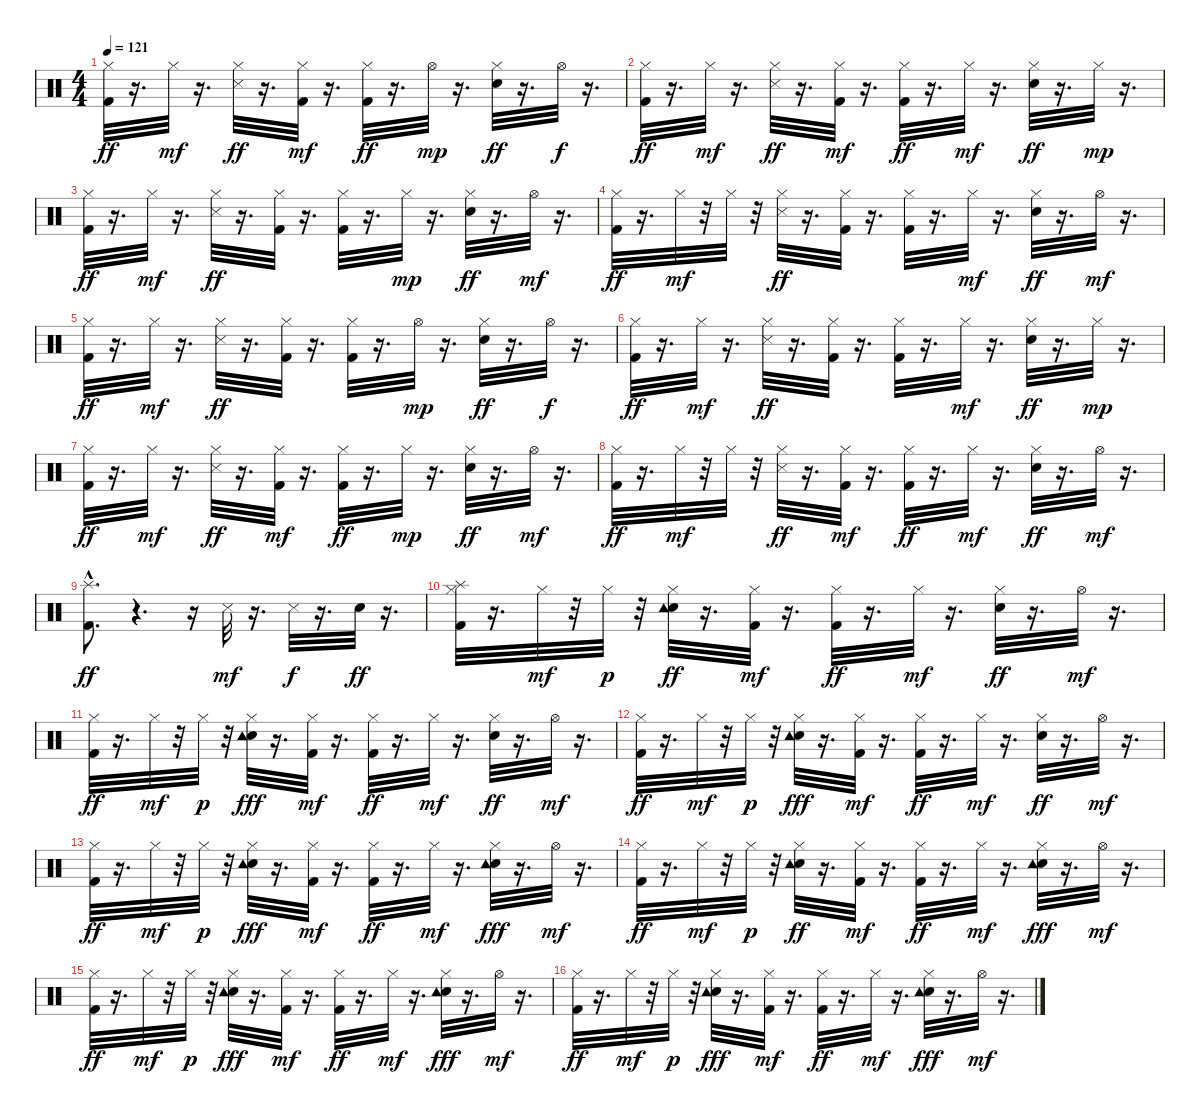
\track "" {instrument percussion}
\staff {score}
\articulation defaults
\ts (4 4)
\tempo 121
\clef neutral
\ks c
("Kick (hit) 2" "Hi-Hat (closed)").32{dy ff} r.16{d} "Hi-Hat (closed)".32{dy mf} r.16{d} ("Snare (side stick) 3" "Hi-Hat (closed)").32{dy ff} r.16{d} ("Kick (hit) 2" "Hi-Hat (closed)").32{dy mf} r.16{d} ("Kick (hit) 2" "Hi-Hat (closed)").32{dy ff} r.16{d} "Hi-Hat (open)".32{dy mp} r.16{d} ("Electric Snare (hit)" "Hi-Hat (closed)").32{dy ff} r.16{d} "Hi-Hat (open)".32{dy f} r.16{d} |
("Kick (hit) 2" "Hi-Hat (closed)").32{dy ff} r.16{d} "Hi-Hat (closed)".32{dy mf} r.16{d} ("Snare (side stick) 3" "Hi-Hat (closed)").32{dy ff} r.16{d} ("Kick (hit) 2" "Hi-Hat (closed)").32{dy mf} r.16{d} ("Kick (hit) 2" "Hi-Hat (closed)").32{dy ff} r.16{d} "Hi-Hat (closed)".32{dy mf} r.16{d} ("Electric Snare (hit)" "Hi-Hat (closed)").32{dy ff} r.16{d} "Hi-Hat (closed)".32{dy mp} r.16{d} |
("Kick (hit) 2" "Hi-Hat (closed)").32{dy ff} r.16{d} "Hi-Hat (closed)".32{dy mf} r.16{d} ("Snare (side stick) 3" "Hi-Hat (closed)").32{dy ff} r.16{d} ("Hi-Hat (closed)" "Kick (hit) 2").32 r.16{d} ("Kick (hit) 2" "Hi-Hat (closed)").32 r.16{d} "Hi-Hat (closed)".32{dy mp} r.16{d} ("Electric Snare (hit)" "Hi-Hat (closed)").32{dy ff} r.16{d} "Hi-Hat (open)".32{dy mf} r.16{d} |
("Kick (hit) 2" "Hi-Hat (closed)").32{dy ff} r.16{d} "Hi-Hat (closed)".32{dy mf} r.32 "Hi-Hat (closed)".32 r.32 ("Snare (side stick) 3" "Hi-Hat (closed)").32{dy ff} r.16{d} ("Hi-Hat (closed)" "Kick (hit) 2").32 r.16{d} ("Kick (hit) 2" "Hi-Hat (closed)").32 r.16{d} "Hi-Hat (closed)".32{dy mf} r.16{d} ("Electric Snare (hit)" "Hi-Hat (closed)").32{dy ff} r.16{d} "Hi-Hat (open)".32{dy mf} r.16{d} |
("Kick (hit) 2" "Hi-Hat (closed)").32{dy ff} r.16{d} "Hi-Hat (closed)".32{dy mf} r.16{d} ("Snare (side stick) 3" "Hi-Hat (closed)").32{dy ff} r.16{d} ("Hi-Hat (closed)" "Kick (hit) 2").32 r.16{d} ("Hi-Hat (closed)" "Kick (hit) 2").32 r.16{d} "Hi-Hat (open)".32{dy mp} r.16{d} ("Electric Snare (hit)" "Hi-Hat (closed)").32{dy ff} r.16{d} "Hi-Hat (open)".32{dy f} r.16{d} |
("Kick (hit) 2" "Hi-Hat (closed)").32{dy ff} r.16{d} "Hi-Hat (closed)".32{dy mf} r.16{d} ("Snare (side stick) 3" "Hi-Hat (closed)").32{dy ff} r.16{d} ("Hi-Hat (closed)" "Kick (hit) 2").32 r.16{d} ("Hi-Hat (closed)" "Kick (hit) 2").32 r.16{d} "Hi-Hat (closed)".32{dy mf} r.16{d} ("Electric Snare (hit)" "Hi-Hat (closed)").32{dy ff} r.16{d} "Hi-Hat (closed)".32{dy mp} r.16{d} |
("Kick (hit) 2" "Hi-Hat (closed)").32{dy ff} r.16{d} "Hi-Hat (closed)".32{dy mf} r.16{d} ("Snare (side stick) 3" "Hi-Hat (closed)").32{dy ff} r.16{d} ("Kick (hit) 2" "Hi-Hat (closed)").32{dy mf} r.16{d} ("Hi-Hat (closed)" "Kick (hit) 2").32{dy ff} r.16{d} "Hi-Hat (closed)".32{dy mp} r.16{d} ("Electric Snare (hit)" "Hi-Hat (closed)").32{dy ff} r.16{d} "Hi-Hat (open)".32{dy mf} r.16{d} |
("Kick (hit) 2" "Hi-Hat (closed)").32{dy ff} r.16{d} "Hi-Hat (closed)".32{dy mf} r.32 "Hi-Hat (closed)".32 r.32 ("Snare (side stick) 3" "Hi-Hat (closed)").32{dy ff} r.16{d} ("Kick (hit) 2" "Hi-Hat (closed)").32{dy mf} r.16{d} ("Hi-Hat (closed)" "Kick (hit) 2").32{dy ff} r.16{d} "Hi-Hat (closed)".32{dy mf} r.16{d} ("Electric Snare (hit)" "Hi-Hat (closed)").32{dy ff} r.16{d} "Hi-Hat (open)".32{dy mf} r.16{d} |
("Kick (hit) 2"{hac} "Splash (hit)").8{d dy ff} r.4{d} r.16 "Snare (side stick) 3".32{dy mf} r.16{d} "Snare (side stick) 3".32{dy f} r.16{d} "Electric Snare (hit)".32{dy ff} r.16{d} |
("Hi-Hat (closed)" "Kick (hit) 2" "Splash (hit)").32 r.16{d} "Hi-Hat (closed)".32{dy mf} r.32 "Hi-Hat (closed)".32{dy p} r.32 ("Electric Snare (hit)" "Hi-Hat (closed)" "Tambourine (hit)").32{dy ff} r.16{d} ("Kick (hit) 2" "Hi-Hat (closed)").32{dy mf} r.16{d} ("Kick (hit) 2" "Hi-Hat (closed)").32{dy ff} r.16{d} "Hi-Hat (closed)".32{dy mf} r.16{d} ("Electric Snare (hit)" "Hi-Hat (closed)").32{dy ff} r.16{d} "Hi-Hat (open)".32{dy mf} r.16{d} |
("Kick (hit) 2" "Hi-Hat (closed)").32{dy ff} r.16{d} "Hi-Hat (closed)".32{dy mf} r.32 "Hi-Hat (closed)".32{dy p} r.32 ("Electric Snare (hit)" "Hi-Hat (closed)" "Tambourine (hit)").32{dy fff} r.16{d} ("Kick (hit) 2" "Hi-Hat (closed)").32{dy mf} r.16{d} ("Kick (hit) 2" "Hi-Hat (closed)").32{dy ff} r.16{d} "Hi-Hat (closed)".32{dy mf} r.16{d} ("Electric Snare (hit)" "Hi-Hat (closed)").32{dy ff} r.16{d} "Hi-Hat (open)".32{dy mf} r.16{d} |
("Kick (hit) 2" "Hi-Hat (closed)").32{dy ff} r.16{d} "Hi-Hat (closed)".32{dy mf} r.32 "Hi-Hat (closed)".32{dy p} r.32 ("Electric Snare (hit)" "Hi-Hat (closed)" "Tambourine (hit)").32{dy fff} r.16{d} ("Kick (hit) 2" "Hi-Hat (closed)").32{dy mf} r.16{d} ("Kick (hit) 2" "Hi-Hat (closed)").32{dy ff} r.16{d} "Hi-Hat (closed)".32{dy mf} r.16{d} ("Electric Snare (hit)" "Hi-Hat (closed)").32{dy ff} r.16{d} "Hi-Hat (open)".32{dy mf} r.16{d} |
("Kick (hit) 2" "Hi-Hat (closed)").32{dy ff} r.16{d} "Hi-Hat (closed)".32{dy mf} r.32 "Hi-Hat (closed)".32{dy p} r.32 ("Electric Snare (hit)" "Hi-Hat (closed)" "Tambourine (hit)").32{dy fff} r.16{d} ("Kick (hit) 2" "Hi-Hat (closed)").32{dy mf} r.16{d} ("Kick (hit) 2" "Hi-Hat (closed)").32{dy ff} r.16{d} "Hi-Hat (closed)".32{dy mf} r.16{d} ("Electric Snare (hit)" "Hi-Hat (closed)" "Tambourine (hit)").32{dy fff} r.16{d} "Hi-Hat (open)".32{dy mf} r.16{d} |
("Kick (hit) 2" "Hi-Hat (closed)").32{dy ff} r.16{d} "Hi-Hat (closed)".32{dy mf} r.32 "Hi-Hat (closed)".32{dy p} r.32 ("Electric Snare (hit)" "Hi-Hat (closed)" "Tambourine (hit)").32{dy ff} r.16{d} ("Kick (hit) 2" "Hi-Hat (closed)").32{dy mf} r.16{d} ("Kick (hit) 2" "Hi-Hat (closed)").32{dy ff} r.16{d} "Hi-Hat (closed)".32{dy mf} r.16{d} ("Electric Snare (hit)" "Hi-Hat (closed)" "Tambourine (hit)").32{dy fff} r.16{d} "Hi-Hat (open)".32{dy mf} r.16{d} |
("Kick (hit) 2" "Hi-Hat (closed)").32{dy ff} r.16{d} "Hi-Hat (closed)".32{dy mf} r.32 "Hi-Hat (closed)".32{dy p} r.32 ("Electric Snare (hit)" "Hi-Hat (closed)" "Tambourine (hit)").32{dy fff} r.16{d} ("Kick (hit) 2" "Hi-Hat (closed)").32{dy mf} r.16{d} ("Kick (hit) 2" "Hi-Hat (closed)").32{dy ff} r.16{d} "Hi-Hat (closed)".32{dy mf} r.16{d} ("Electric Snare (hit)" "Hi-Hat (closed)" "Tambourine (hit)").32{dy fff} r.16{d} "Hi-Hat (open)".32{dy mf} r.16{d} |
("Kick (hit) 2" "Hi-Hat (closed)").32{dy ff} r.16{d} "Hi-Hat (closed)".32{dy mf} r.32 "Hi-Hat (closed)".32{dy p} r.32 ("Electric Snare (hit)" "Hi-Hat (closed)" "Tambourine (hit)").32{dy fff} r.16{d} ("Kick (hit) 2" "Hi-Hat (closed)").32{dy mf} r.16{d} ("Kick (hit) 2" "Hi-Hat (closed)").32{dy ff} r.16{d} "Hi-Hat (closed)".32{dy mf} r.16{d} ("Electric Snare (hit)" "Hi-Hat (closed)" "Tambourine (hit)").32{dy fff} r.16{d} "Hi-Hat (open)".32{dy mf} r.16{d}
